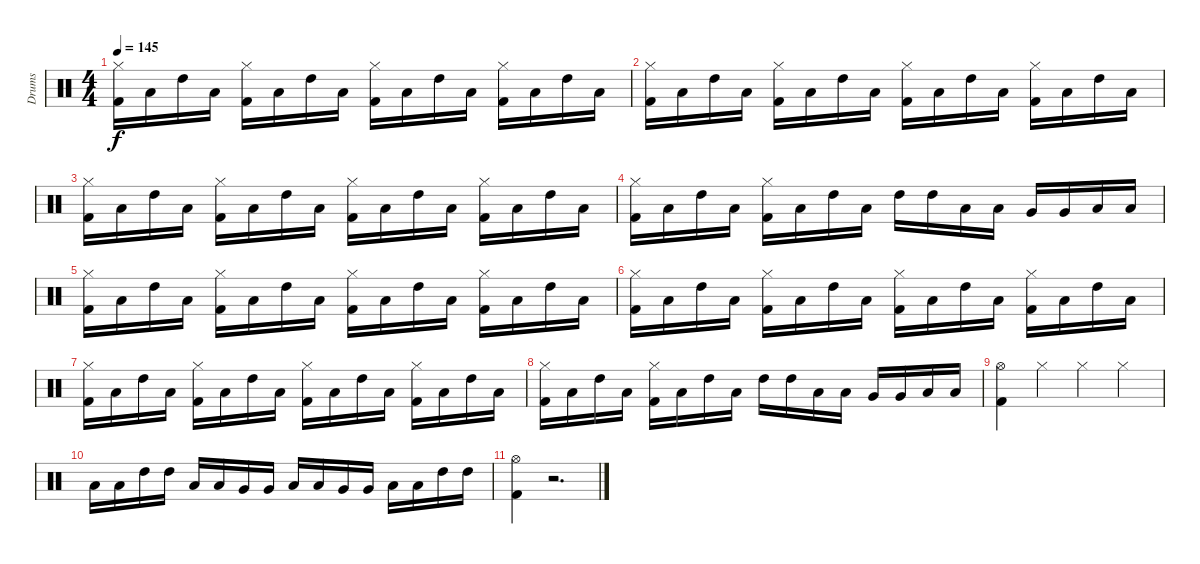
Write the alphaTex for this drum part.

\track ("Drums" "Drums") {instrument percussion}
\staff {score}
\articulation defaults
\ts (4 4)
\tempo 145
\clef neutral
\ks c
("Hi-Hat (closed)" "Kick (hit) 2").16{dy f} "Low Tom (hit)".16 "High Tom (hit)".16 "Low Tom (hit)".16 ("Hi-Hat (closed)" "Kick (hit) 2").16 "Low Tom (hit)".16 "High Tom (hit)".16 "Low Tom (hit)".16 ("Hi-Hat (closed)" "Kick (hit) 2").16 "Low Tom (hit)".16 "High Tom (hit)".16 "Low Tom (hit)".16 ("Hi-Hat (closed)" "Kick (hit) 2").16 "Low Tom (hit)".16 "High Tom (hit)".16 "Low Tom (hit)".16 |
("Hi-Hat (closed)" "Kick (hit) 2").16 "Low Tom (hit)".16 "High Tom (hit)".16 "Low Tom (hit)".16 ("Hi-Hat (closed)" "Kick (hit) 2").16 "Low Tom (hit)".16 "High Tom (hit)".16 "Low Tom (hit)".16 ("Hi-Hat (closed)" "Kick (hit) 2").16 "Low Tom (hit)".16 "High Tom (hit)".16 "Low Tom (hit)".16 ("Hi-Hat (closed)" "Kick (hit) 2").16 "Low Tom (hit)".16 "High Tom (hit)".16 "Low Tom (hit)".16 |
("Hi-Hat (closed)" "Kick (hit) 2").16 "Low Tom (hit)".16 "High Tom (hit)".16 "Low Tom (hit)".16 ("Hi-Hat (closed)" "Kick (hit) 2").16 "Low Tom (hit)".16 "High Tom (hit)".16 "Low Tom (hit)".16 ("Hi-Hat (closed)" "Kick (hit) 2").16 "Low Tom (hit)".16 "High Tom (hit)".16 "Low Tom (hit)".16 ("Hi-Hat (closed)" "Kick (hit) 2").16 "Low Tom (hit)".16 "High Tom (hit)".16 "Low Tom (hit)".16 |
("Hi-Hat (closed)" "Kick (hit) 2").16 "Low Tom (hit)".16 "High Tom (hit)".16 "Low Tom (hit)".16 ("Hi-Hat (closed)" "Kick (hit) 2").16 "Low Tom (hit)".16 "High Tom (hit)".16 "Low Tom (hit)".16 "High Tom (hit)".16 "High Tom (hit)".16 "Low Tom (hit)".16 "Low Tom (hit)".16 "Very Low Tom (hit)".16 "Very Low Tom (hit)".16 "Low Floor Tom (hit)".16 "Low Floor Tom (hit)".16 |
("Hi-Hat (closed)" "Kick (hit) 2").16 "Low Tom (hit)".16 "High Tom (hit)".16 "Low Tom (hit)".16 ("Hi-Hat (closed)" "Kick (hit) 2").16 "Low Tom (hit)".16 "High Tom (hit)".16 "Low Tom (hit)".16 ("Hi-Hat (closed)" "Kick (hit) 2").16 "Low Tom (hit)".16 "High Tom (hit)".16 "Low Tom (hit)".16 ("Hi-Hat (closed)" "Kick (hit) 2").16 "Low Tom (hit)".16 "High Tom (hit)".16 "Low Tom (hit)".16 |
("Hi-Hat (closed)" "Kick (hit) 2").16 "Low Tom (hit)".16 "High Tom (hit)".16 "Low Tom (hit)".16 ("Hi-Hat (closed)" "Kick (hit) 2").16 "Low Tom (hit)".16 "High Tom (hit)".16 "Low Tom (hit)".16 ("Hi-Hat (closed)" "Kick (hit) 2").16 "Low Tom (hit)".16 "High Tom (hit)".16 "Low Tom (hit)".16 ("Hi-Hat (closed)" "Kick (hit) 2").16 "Low Tom (hit)".16 "High Tom (hit)".16 "Low Tom (hit)".16 |
("Hi-Hat (closed)" "Kick (hit) 2").16 "Low Tom (hit)".16 "High Tom (hit)".16 "Low Tom (hit)".16 ("Hi-Hat (closed)" "Kick (hit) 2").16 "Low Tom (hit)".16 "High Tom (hit)".16 "Low Tom (hit)".16 ("Hi-Hat (closed)" "Kick (hit) 2").16 "Low Tom (hit)".16 "High Tom (hit)".16 "Low Tom (hit)".16 ("Hi-Hat (closed)" "Kick (hit) 2").16 "Low Tom (hit)".16 "High Tom (hit)".16 "Low Tom (hit)".16 |
("Hi-Hat (closed)" "Kick (hit) 2").16 "Low Tom (hit)".16 "High Tom (hit)".16 "Low Tom (hit)".16 ("Hi-Hat (closed)" "Kick (hit) 2").16 "Low Tom (hit)".16 "High Tom (hit)".16 "Low Tom (hit)".16 "High Tom (hit)".16 "High Tom (hit)".16 "Low Tom (hit)".16 "Low Tom (hit)".16 "Very Low Tom (hit)".16 "Very Low Tom (hit)".16 "Low Floor Tom (hit)".16 "Low Floor Tom (hit)".16 |
("Hi-Hat (open)" "Kick (hit) 2").4 "Hi-Hat (closed)".4 "Hi-Hat (closed)".4 "Hi-Hat (closed)".4 |
"Low Tom (hit)".16 "Low Tom (hit)".16 "High Tom (hit)".16 "High Tom (hit)".16 "Low Tom (hit)".16 "Low Tom (hit)".16 "Very Low Tom (hit)".16 "Very Low Tom (hit)".16 "Low Floor Tom (hit)".16 "Low Floor Tom (hit)".16 "Very Low Tom (hit)".16 "Very Low Tom (hit)".16 "Low Tom (hit)".16 "Low Tom (hit)".16 "High Tom (hit)".16 "High Tom (hit)".16 |
("Hi-Hat (open)" "Kick (hit) 2").4 r.2{d}
